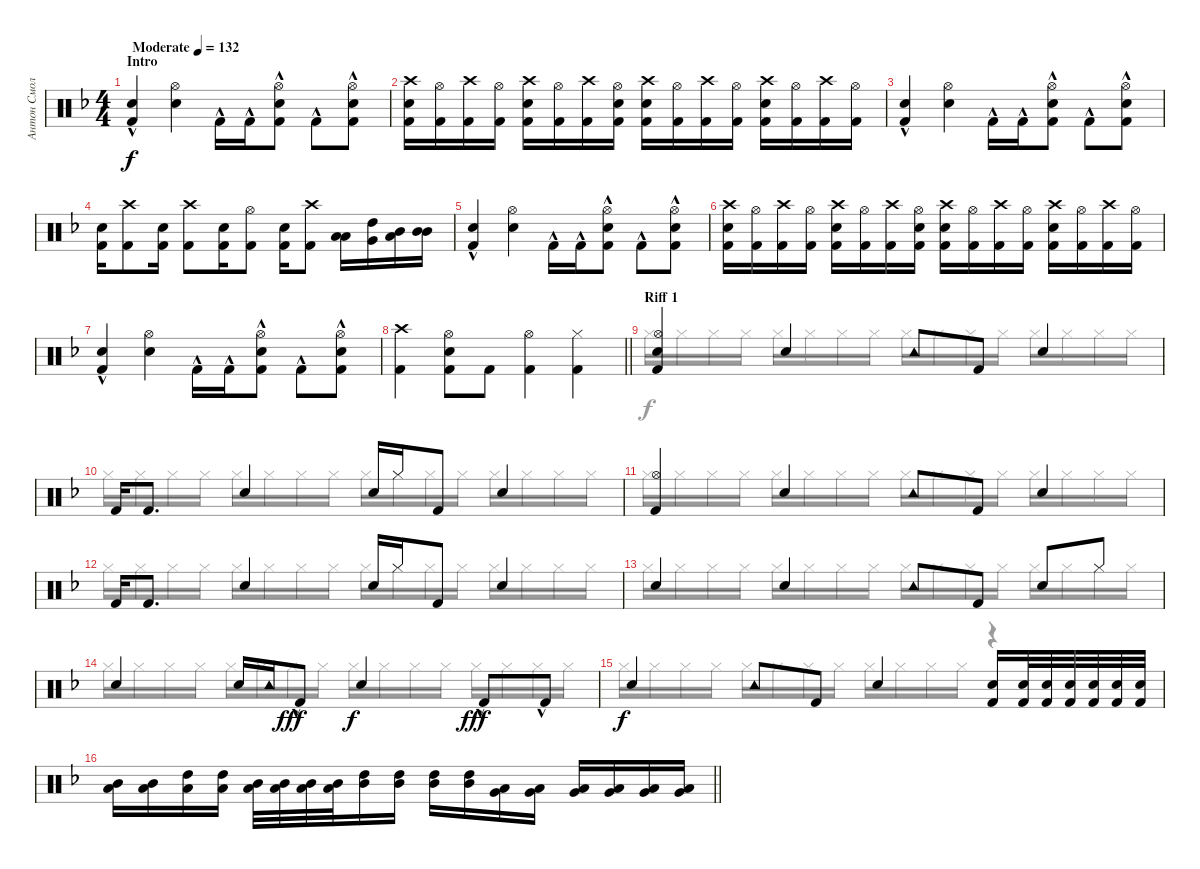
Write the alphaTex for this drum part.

\track ("Антон Смольянин" "Антон Смол") {instrument percussion}
\staff {score}
\articulation defaults
\voice
\ts (4 4)
\section ("" "Intro")
\tempo (132 "Moderate")
\clef neutral
\ks f
("Kick (hit) 2"{hac} "Snare (hit) 2").4{dy f} ("Snare (hit) 2" "Hi-Hat (open)").4 "Kick (hit) 2"{hac}.16 "Kick (hit) 2"{hac}.16 ("Kick (hit) 2"{hac} "Hi-Hat (open)" "Snare (hit) 2").8 "Kick (hit) 2"{hac}.8 ("Kick (hit) 2"{hac} "Hi-Hat (open)" "Snare (hit) 2").8 |
("Kick (hit) 2" "Snare (hit) 2" "Crash high (hit)").16 ("Kick (hit) 2" "Hi-Hat (open)").16 ("Kick (hit) 2" "Crash high (hit)").16 ("Kick (hit) 2" "Hi-Hat (open)").16 ("Kick (hit) 2" "Snare (hit) 2" "Crash high (hit)").16 ("Kick (hit) 2" "Hi-Hat (open)").16 ("Kick (hit) 2" "Crash high (hit)").16 ("Kick (hit) 2" "Snare (hit) 2" "Hi-Hat (open)").16 ("Kick (hit) 2" "Snare (hit) 2" "Crash high (hit)").16 ("Kick (hit) 2" "Hi-Hat (open)").16 ("Kick (hit) 2" "Crash high (hit)").16 ("Kick (hit) 2" "Hi-Hat (open)").16 ("Kick (hit) 2" "Snare (hit) 2" "Crash high (hit)").16 ("Kick (hit) 2" "Hi-Hat (open)").16 ("Kick (hit) 2" "Crash high (hit)").16 ("Kick (hit) 2" "Hi-Hat (open)").16 |
("Kick (hit) 2"{hac} "Snare (hit) 2").4 ("Snare (hit) 2" "Hi-Hat (open)").4 "Kick (hit) 2"{hac}.16 "Kick (hit) 2"{hac}.16 ("Kick (hit) 2"{hac} "Hi-Hat (open)" "Snare (hit) 2").8 "Kick (hit) 2"{hac}.8 ("Kick (hit) 2"{hac} "Hi-Hat (open)" "Snare (hit) 2").8 |
("Kick (hit) 2" "Snare (hit) 2").16 ("Kick (hit) 2" "Crash high (hit)").8 ("Kick (hit) 2" "Snare (hit) 2").16 ("Kick (hit) 2" "Crash high (hit)").8 ("Kick (hit) 2" "Snare (hit) 2").16 ("Kick (hit) 2" "Hi-Hat (open)").8 ("Kick (hit) 2" "Snare (hit) 2").16 ("Kick (hit) 2" "Crash high (hit)").8 ("Low Tom (hit)" "Low Floor Tom (hit)").16 ("High Tom (hit)" "Very Low Tom (hit)").16 ("Mid Tom (hit)" "Low Floor Tom (hit)").16 ("Mid Tom (hit)" "Mid Tom (hit)").16 |
("Kick (hit) 2"{hac} "Snare (hit) 2").4 ("Snare (hit) 2" "Hi-Hat (open)").4 "Kick (hit) 2"{hac}.16 "Kick (hit) 2"{hac}.16 ("Kick (hit) 2"{hac} "Hi-Hat (open)" "Snare (hit) 2").8 "Kick (hit) 2"{hac}.8 ("Kick (hit) 2"{hac} "Hi-Hat (open)" "Snare (hit) 2").8 |
("Kick (hit) 2" "Snare (hit) 2" "Crash high (hit)").16 ("Kick (hit) 2" "Hi-Hat (open)").16 ("Kick (hit) 2" "Crash high (hit)").16 ("Kick (hit) 2" "Hi-Hat (open)").16 ("Kick (hit) 2" "Snare (hit) 2" "Crash high (hit)").16 ("Kick (hit) 2" "Hi-Hat (open)").16 ("Kick (hit) 2" "Crash high (hit)").16 ("Kick (hit) 2" "Snare (hit) 2" "Hi-Hat (open)").16 ("Kick (hit) 2" "Snare (hit) 2" "Crash high (hit)").16 ("Kick (hit) 2" "Hi-Hat (open)").16 ("Kick (hit) 2" "Crash high (hit)").16 ("Kick (hit) 2" "Hi-Hat (open)").16 ("Kick (hit) 2" "Snare (hit) 2" "Crash high (hit)").16 ("Kick (hit) 2" "Hi-Hat (open)").16 ("Kick (hit) 2" "Crash high (hit)").16 ("Kick (hit) 2" "Hi-Hat (open)").16 |
("Kick (hit) 2"{hac} "Snare (hit) 2").4 ("Snare (hit) 2" "Hi-Hat (open)").4 "Kick (hit) 2"{hac}.16 "Kick (hit) 2"{hac}.16 ("Kick (hit) 2"{hac} "Hi-Hat (open)" "Snare (hit) 2").8 "Kick (hit) 2"{hac}.8 ("Kick (hit) 2"{hac} "Hi-Hat (open)" "Snare (hit) 2").8 |
\barLineRight lightlight
("Kick (hit) 2" "Crash high (hit)").4 ("Kick (hit) 2" "Hi-Hat (open)" "Snare (hit) 2").8 "Kick (hit) 2".8 ("Kick (hit) 2" "Hi-Hat (open)").4 ("Kick (hit) 2" "Hi-Hat (closed)").4 |
\section ("" "Riff 1")
("Kick (hit) 2" "Snare (hit) 2" "Hi-Hat (open)").4 "Electric Snare (hit)".4 "Tambourine (hit)".8 "Kick (hit) 2".8 "Electric Snare (hit)".4 |
"Kick (hit) 2".16 "Kick (hit) 2".8{d} "Electric Snare (hit)".4 "Electric Snare (hit)".16 "Hi-Hat (closed)".16 "Kick (hit) 2".8 "Electric Snare (hit)".4 |
("Kick (hit) 2" "Hi-Hat (open)").4 "Electric Snare (hit)".4 "Tambourine (hit)".8 "Kick (hit) 2".8 "Electric Snare (hit)".4 |
"Kick (hit) 2".16 "Kick (hit) 2".8{d} "Electric Snare (hit)".4 "Electric Snare (hit)".16 "Hi-Hat (closed)".16 "Kick (hit) 2".8 "Electric Snare (hit)".4 |
"Snare (hit) 2".4 "Electric Snare (hit)".4 "Tambourine (hit)".8 "Kick (hit) 2".8 "Electric Snare (hit)".8 "Hi-Hat (closed)".8 |
"Electric Snare (hit)".4 "Electric Snare (hit)".16 "Tambourine (hit)".16 "Kick (hit) 2"{hac}.8{dy fff} "Electric Snare (hit)".4{dy f} "Kick (hit) 2"{hac}.8{dy fff} "Kick (hit) 2"{hac}.8 |
"Electric Snare (hit)".4{dy f} "Tambourine (hit)".8 "Kick (hit) 2".8 "Electric Snare (hit)".4 ("Kick (hit) 2" "Snare (hit) 2").16 ("Kick (hit) 2" "Snare (hit) 2").32 ("Kick (hit) 2" "Snare (hit) 2").32 ("Kick (hit) 2" "Snare (hit) 2").32 ("Kick (hit) 2" "Snare (hit) 2").32 ("Kick (hit) 2" "Snare (hit) 2").32 ("Kick (hit) 2" "Snare (hit) 2").32 |
\barLineRight lightlight
("Mid Tom (hit)" "Low Tom (hit)").16 ("Mid Tom (hit)" "Low Tom (hit)").16 ("Low Tom (hit)" "High Tom (hit)").16 ("Low Tom (hit)" "High Tom (hit)").16 ("Low Tom (hit)" "Mid Tom (hit)").32 ("Low Tom (hit)" "Mid Tom (hit)").32 ("Low Tom (hit)" "Mid Tom (hit)").32 ("Low Tom (hit)" "Mid Tom (hit)").32 ("Mid Tom (hit)" "High Tom (hit)").16 ("Mid Tom (hit)" "High Tom (hit)").16 ("Mid Tom (hit)" "High Tom (hit)").16 ("Mid Tom (hit)" "High Tom (hit)").16 ("Low Floor Tom (hit)" "Very Low Tom (hit)").16 ("Low Floor Tom (hit)" "Very Low Tom (hit)").16 ("Very Low Tom (hit)" "Low Tom (hit)").16 ("Low Floor Tom (hit)" "Very Low Tom (hit)").16 ("Very Low Tom (hit)" "Low Tom (hit)").16 ("Low Floor Tom (hit)" "Very Low Tom (hit)").16
\voice
\clef neutral
\ottava regular
\simile none
\ks f
|
|
|
|
|
|
|
\barLineRight lightlight
|
"Hi-Hat (closed)".16 "Hi-Hat (closed)".16 "Hi-Hat (closed)".16 "Hi-Hat (closed)".16 "Hi-Hat (closed)".16 "Hi-Hat (closed)".16 "Hi-Hat (closed)".16 "Hi-Hat (closed)".16 "Hi-Hat (closed)".16 "Hi-Hat (closed)".16 "Hi-Hat (closed)".16 "Hi-Hat (closed)".16 "Hi-Hat (closed)".16 "Hi-Hat (closed)".16 "Hi-Hat (closed)".16 "Hi-Hat (closed)".16 |
"Hi-Hat (closed)".16 "Hi-Hat (closed)".16 "Hi-Hat (closed)".16 "Hi-Hat (closed)".16 "Hi-Hat (closed)".16 "Hi-Hat (closed)".16 "Hi-Hat (closed)".16 "Hi-Hat (closed)".16 "Hi-Hat (closed)".16 "Hi-Hat (closed)".16 "Hi-Hat (closed)".16 "Hi-Hat (closed)".16 "Hi-Hat (closed)".16 "Hi-Hat (closed)".16 "Hi-Hat (closed)".16 "Hi-Hat (closed)".16 |
"Hi-Hat (closed)".16 "Hi-Hat (closed)".16 "Hi-Hat (closed)".16 "Hi-Hat (closed)".16 "Hi-Hat (closed)".16 "Hi-Hat (closed)".16 "Hi-Hat (closed)".16 "Hi-Hat (closed)".16 "Hi-Hat (closed)".16 "Hi-Hat (closed)".16 "Hi-Hat (closed)".16 "Hi-Hat (closed)".16 "Hi-Hat (closed)".16 "Hi-Hat (closed)".16 "Hi-Hat (closed)".16 "Hi-Hat (closed)".16 |
"Hi-Hat (closed)".16 "Hi-Hat (closed)".16 "Hi-Hat (closed)".16 "Hi-Hat (closed)".16 "Hi-Hat (closed)".16 "Hi-Hat (closed)".16 "Hi-Hat (closed)".16 "Hi-Hat (closed)".16 "Hi-Hat (closed)".16 "Hi-Hat (closed)".16 "Hi-Hat (closed)".16 "Hi-Hat (closed)".16 "Hi-Hat (closed)".16 "Hi-Hat (closed)".16 "Hi-Hat (closed)".16 "Hi-Hat (closed)".16 |
"Hi-Hat (closed)".16 "Hi-Hat (closed)".16 "Hi-Hat (closed)".16 "Hi-Hat (closed)".16 "Hi-Hat (closed)".16 "Hi-Hat (closed)".16 "Hi-Hat (closed)".16 "Hi-Hat (closed)".16 "Hi-Hat (closed)".16 "Hi-Hat (closed)".16 "Hi-Hat (closed)".16 "Hi-Hat (closed)".16 "Hi-Hat (closed)".16 "Hi-Hat (closed)".16 "Hi-Hat (closed)".16 "Hi-Hat (closed)".16 |
"Hi-Hat (closed)".16 "Hi-Hat (closed)".16 "Hi-Hat (closed)".16 "Hi-Hat (closed)".16 "Hi-Hat (closed)".16 "Hi-Hat (closed)".16 "Hi-Hat (closed)".16 "Hi-Hat (closed)".16 "Hi-Hat (closed)".16 "Hi-Hat (closed)".16 "Hi-Hat (closed)".16 "Hi-Hat (closed)".16 "Hi-Hat (closed)".16 "Hi-Hat (closed)".16 "Hi-Hat (closed)".16 "Hi-Hat (closed)".16 |
"Hi-Hat (closed)".16 "Hi-Hat (closed)".16 "Hi-Hat (closed)".16 "Hi-Hat (closed)".16 "Hi-Hat (closed)".16 "Hi-Hat (closed)".16 "Hi-Hat (closed)".16 "Hi-Hat (closed)".16 "Hi-Hat (closed)".16 "Hi-Hat (closed)".16 "Hi-Hat (closed)".16 "Hi-Hat (closed)".16 r.4 |
\barLineRight lightlight
